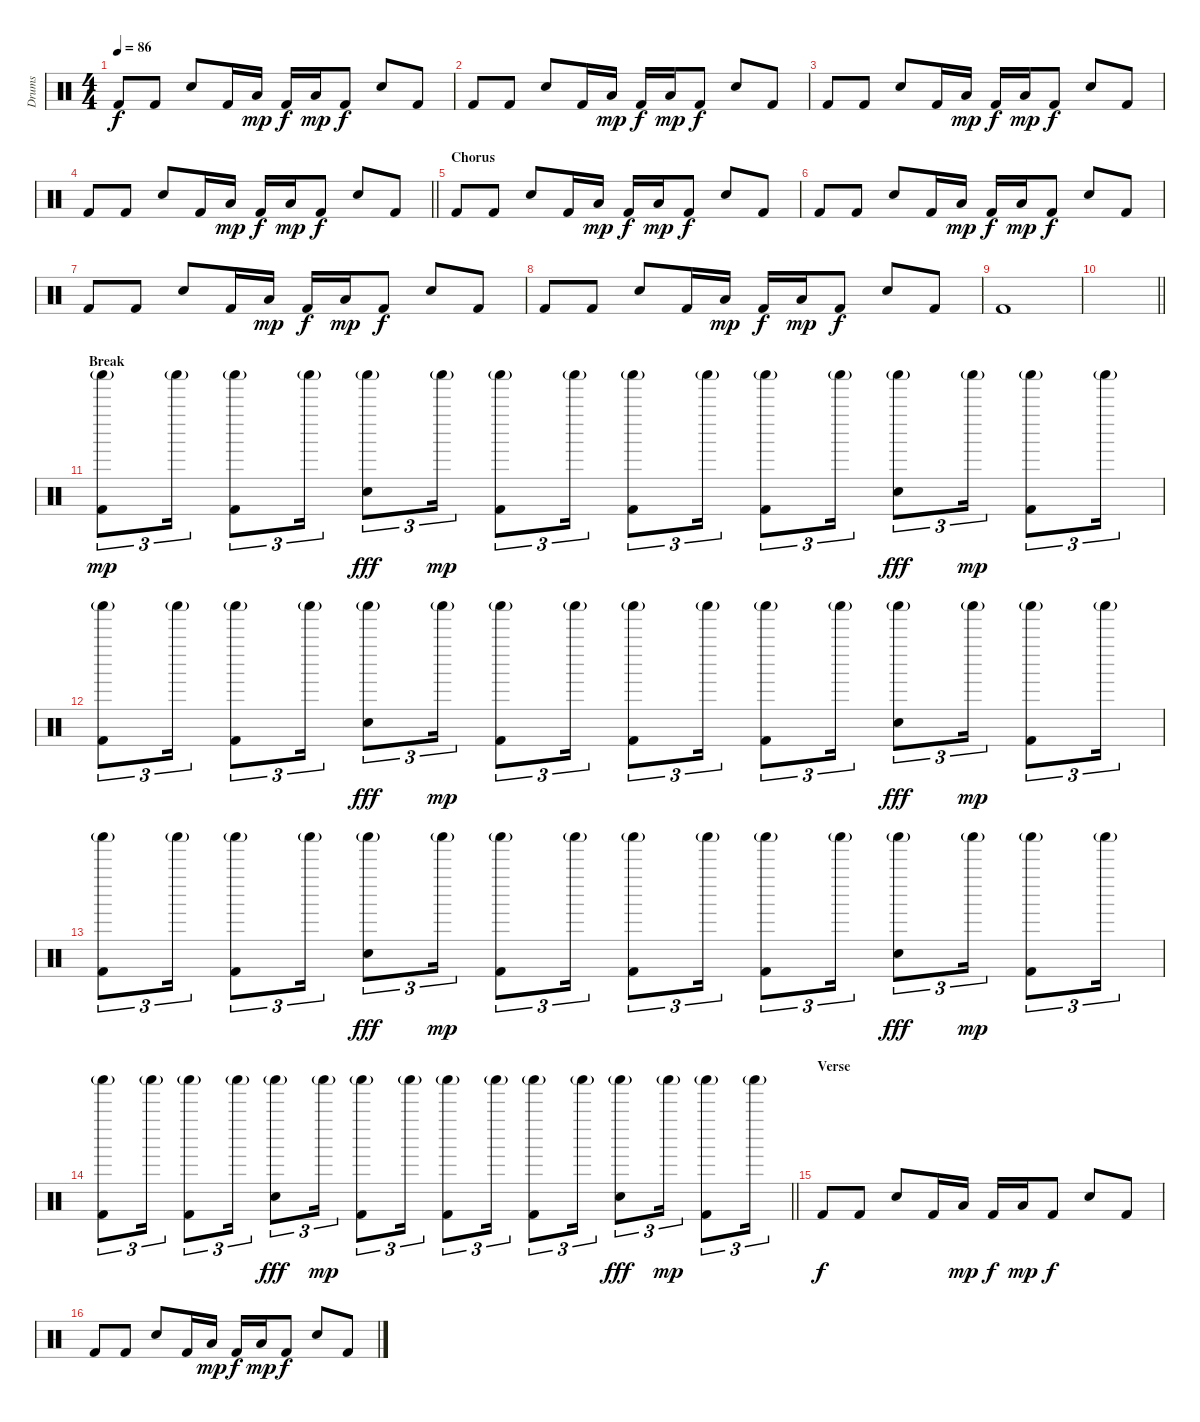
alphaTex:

\track ("Drums" "Drums") {instrument percussion}
\staff {score}
\articulation defaults
\ts (4 4)
\tempo 86
\clef neutral
\ks c "Kick (hit) 2".8{dy f} "Kick (hit) 2".8 "Electric Snare (hit)".8 "Kick (hit) 2".16 "Low Floor Tom (hit)".16{dy mp} "Kick (hit) 2".16{dy f} "Low Floor Tom (hit)".16{dy mp} "Kick (hit) 2".8{dy f} "Electric Snare (hit)".8 "Kick (hit) 2".8
|
"Kick (hit) 2".8 "Kick (hit) 2".8 "Electric Snare (hit)".8 "Kick (hit) 2".16 "Low Floor Tom (hit)".16{dy mp} "Kick (hit) 2".16{dy f} "Low Floor Tom (hit)".16{dy mp} "Kick (hit) 2".8{dy f} "Electric Snare (hit)".8 "Kick (hit) 2".8 |
"Kick (hit) 2".8 "Kick (hit) 2".8 "Electric Snare (hit)".8 "Kick (hit) 2".16 "Low Floor Tom (hit)".16{dy mp} "Kick (hit) 2".16{dy f} "Low Floor Tom (hit)".16{dy mp} "Kick (hit) 2".8{dy f} "Electric Snare (hit)".8 "Kick (hit) 2".8 |
\barLineRight lightlight "Kick (hit) 2".8 "Kick (hit) 2".8 "Electric Snare (hit)".8 "Kick (hit) 2".16 "Low Floor Tom (hit)".16{dy mp} "Kick (hit) 2".16{dy f} "Low Floor Tom (hit)".16{dy mp} "Kick (hit) 2".8{dy f} "Electric Snare (hit)".8 "Kick (hit) 2".8
|
\section ("" "Chorus")
"Kick (hit) 2".8 "Kick (hit) 2".8 "Electric Snare (hit)".8 "Kick (hit) 2".16 "Low Floor Tom (hit)".16{dy mp} "Kick (hit) 2".16{dy f} "Low Floor Tom (hit)".16{dy mp} "Kick (hit) 2".8{dy f} "Electric Snare (hit)".8 "Kick (hit) 2".8 |
"Kick (hit) 2".8 "Kick (hit) 2".8 "Electric Snare (hit)".8 "Kick (hit) 2".16 "Low Floor Tom (hit)".16{dy mp} "Kick (hit) 2".16{dy f} "Low Floor Tom (hit)".16{dy mp} "Kick (hit) 2".8{dy f} "Electric Snare (hit)".8 "Kick (hit) 2".8 |
"Kick (hit) 2".8 "Kick (hit) 2".8 "Electric Snare (hit)".8 "Kick (hit) 2".16 "Low Floor Tom (hit)".16{dy mp} "Kick (hit) 2".16{dy f} "Low Floor Tom (hit)".16{dy mp} "Kick (hit) 2".8{dy f} "Electric Snare (hit)".8 "Kick (hit) 2".8 |
"Kick (hit) 2".8 "Kick (hit) 2".8 "Electric Snare (hit)".8 "Kick (hit) 2".16 "Low Floor Tom (hit)".16{dy mp} "Kick (hit) 2".16{dy f} "Low Floor Tom (hit)".16{dy mp} "Kick (hit) 2".8{dy f} "Electric Snare (hit)".8 "Kick (hit) 2".8 |
"Kick (hit) 2".1 |
\barLineRight lightlight
|
\section ("" "Break")
("Shaker (hit)"{g} "Kick (hit) 2").8{tu (3 2) dy mp} "Shaker (hit)"{g}.16{tu (3 2)} ("Shaker (hit)"{g} "Kick (hit) 2").8{tu (3 2)} "Shaker (hit)"{g}.16{tu (3 2)} ("Shaker (hit)"{g} "Electric Snare (hit)").8{tu (3 2) dy fff} "Shaker (hit)"{g}.16{tu (3 2) dy mp} ("Shaker (hit)"{g} "Kick (hit) 2").8{tu (3 2)} "Shaker (hit)"{g}.16{tu (3 2)} ("Shaker (hit)"{g} "Kick (hit) 2").8{tu (3 2)} "Shaker (hit)"{g}.16{tu (3 2)} ("Shaker (hit)"{g} "Kick (hit) 2").8{tu (3 2)} "Shaker (hit)"{g}.16{tu (3 2)} ("Shaker (hit)"{g} "Electric Snare (hit)").8{tu (3 2) dy fff} "Shaker (hit)"{g}.16{tu (3 2) dy mp} ("Shaker (hit)"{g} "Kick (hit) 2").8{tu (3 2)} "Shaker (hit)"{g}.16{tu (3 2)} |
("Shaker (hit)"{g} "Kick (hit) 2").8{tu (3 2)} "Shaker (hit)"{g}.16{tu (3 2)} ("Shaker (hit)"{g} "Kick (hit) 2").8{tu (3 2)} "Shaker (hit)"{g}.16{tu (3 2)} ("Shaker (hit)"{g} "Electric Snare (hit)").8{tu (3 2) dy fff} "Shaker (hit)"{g}.16{tu (3 2) dy mp} ("Shaker (hit)"{g} "Kick (hit) 2").8{tu (3 2)} "Shaker (hit)"{g}.16{tu (3 2)} ("Shaker (hit)"{g} "Kick (hit) 2").8{tu (3 2)} "Shaker (hit)"{g}.16{tu (3 2)} ("Shaker (hit)"{g} "Kick (hit) 2").8{tu (3 2)} "Shaker (hit)"{g}.16{tu (3 2)} ("Shaker (hit)"{g} "Electric Snare (hit)").8{tu (3 2) dy fff} "Shaker (hit)"{g}.16{tu (3 2) dy mp} ("Shaker (hit)"{g} "Kick (hit) 2").8{tu (3 2)} "Shaker (hit)"{g}.16{tu (3 2)} |
("Shaker (hit)"{g} "Kick (hit) 2").8{tu (3 2)} "Shaker (hit)"{g}.16{tu (3 2)} ("Shaker (hit)"{g} "Kick (hit) 2").8{tu (3 2)} "Shaker (hit)"{g}.16{tu (3 2)} ("Shaker (hit)"{g} "Electric Snare (hit)").8{tu (3 2) dy fff} "Shaker (hit)"{g}.16{tu (3 2) dy mp} ("Shaker (hit)"{g} "Kick (hit) 2").8{tu (3 2)} "Shaker (hit)"{g}.16{tu (3 2)} ("Shaker (hit)"{g} "Kick (hit) 2").8{tu (3 2)} "Shaker (hit)"{g}.16{tu (3 2)} ("Shaker (hit)"{g} "Kick (hit) 2").8{tu (3 2)} "Shaker (hit)"{g}.16{tu (3 2)} ("Shaker (hit)"{g} "Electric Snare (hit)").8{tu (3 2) dy fff} "Shaker (hit)"{g}.16{tu (3 2) dy mp} ("Shaker (hit)"{g} "Kick (hit) 2").8{tu (3 2)} "Shaker (hit)"{g}.16{tu (3 2)} |
\barLineRight lightlight
("Shaker (hit)"{g} "Kick (hit) 2").8{tu (3 2)} "Shaker (hit)"{g}.16{tu (3 2)} ("Shaker (hit)"{g} "Kick (hit) 2").8{tu (3 2)} "Shaker (hit)"{g}.16{tu (3 2)} ("Shaker (hit)"{g} "Electric Snare (hit)").8{tu (3 2) dy fff} "Shaker (hit)"{g}.16{tu (3 2) dy mp} ("Shaker (hit)"{g} "Kick (hit) 2").8{tu (3 2)} "Shaker (hit)"{g}.16{tu (3 2)} ("Shaker (hit)"{g} "Kick (hit) 2").8{tu (3 2)} "Shaker (hit)"{g}.16{tu (3 2)} ("Shaker (hit)"{g} "Kick (hit) 2").8{tu (3 2)} "Shaker (hit)"{g}.16{tu (3 2)} ("Shaker (hit)"{g} "Electric Snare (hit)").8{tu (3 2) dy fff} "Shaker (hit)"{g}.16{tu (3 2) dy mp} ("Shaker (hit)"{g} "Kick (hit) 2").8{tu (3 2)} "Shaker (hit)"{g}.16{tu (3 2)} |
\section ("" "Verse")
"Kick (hit) 2".8{dy f} "Kick (hit) 2".8 "Electric Snare (hit)".8 "Kick (hit) 2".16 "Low Floor Tom (hit)".16{dy mp} "Kick (hit) 2".16{dy f} "Low Floor Tom (hit)".16{dy mp} "Kick (hit) 2".8{dy f} "Electric Snare (hit)".8 "Kick (hit) 2".8 |
"Kick (hit) 2".8 "Kick (hit) 2".8 "Electric Snare (hit)".8 "Kick (hit) 2".16 "Low Floor Tom (hit)".16{dy mp} "Kick (hit) 2".16{dy f} "Low Floor Tom (hit)".16{dy mp} "Kick (hit) 2".8{dy f} "Electric Snare (hit)".8 "Kick (hit) 2".8
